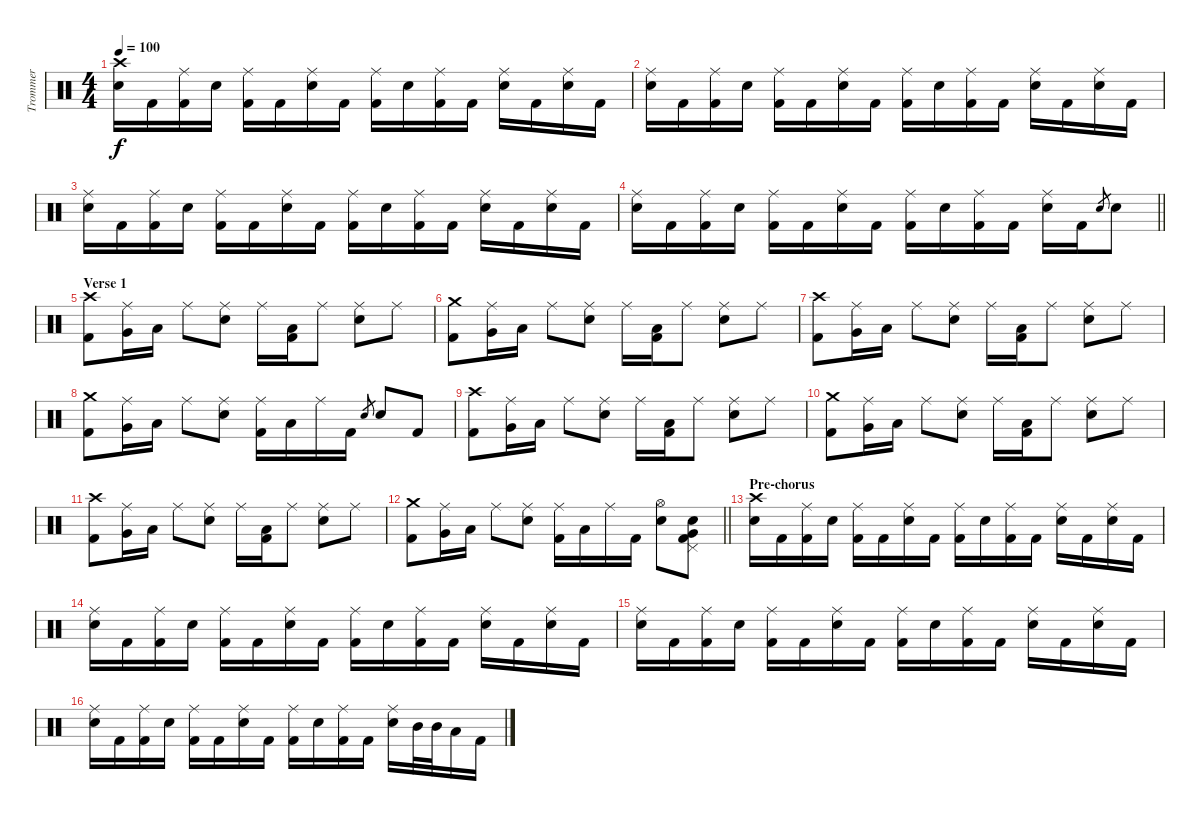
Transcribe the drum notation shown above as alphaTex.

\track ("Trommer" "Trommer") {instrument percussion}
\staff {score}
\articulation defaults
\ts (4 4)
\tempo 100
\clef neutral
\ks c
("Crash high (hit)" "Snare (hit) 2").16{dy f} "Kick (hit) 2".16 ("Ride (middle)" "Kick (hit) 2").16 "Snare (hit) 2".16 ("Ride (middle)" "Kick (hit) 2").16 "Kick (hit) 2".16 ("Ride (middle)" "Snare (hit) 2").16 "Kick (hit) 2".16 ("Ride (middle)" "Kick (hit) 2").16 "Snare (hit) 2".16 ("Ride (middle)" "Kick (hit) 2").16 "Kick (hit) 2".16 ("Ride (middle)" "Snare (hit) 2").16 "Kick (hit) 2".16 ("Ride (middle)" "Snare (hit) 2").16 "Kick (hit) 2".16 |
("Ride (middle)" "Snare (hit) 2").16 "Kick (hit) 2".16 ("Ride (middle)" "Kick (hit) 2").16 "Snare (hit) 2".16 ("Ride (middle)" "Kick (hit) 2").16 "Kick (hit) 2".16 ("Ride (middle)" "Snare (hit) 2").16 "Kick (hit) 2".16 ("Ride (middle)" "Kick (hit) 2").16 "Snare (hit) 2".16 ("Ride (middle)" "Kick (hit) 2").16 "Kick (hit) 2".16 ("Ride (middle)" "Snare (hit) 2").16 "Kick (hit) 2".16 ("Ride (middle)" "Snare (hit) 2").16 "Kick (hit) 2".16 |
("Ride (middle)" "Snare (hit) 2").16 "Kick (hit) 2".16 ("Ride (middle)" "Kick (hit) 2").16 "Snare (hit) 2".16 ("Ride (middle)" "Kick (hit) 2").16 "Kick (hit) 2".16 ("Ride (middle)" "Snare (hit) 2").16 "Kick (hit) 2".16 ("Ride (middle)" "Kick (hit) 2").16 "Snare (hit) 2".16 ("Ride (middle)" "Kick (hit) 2").16 "Kick (hit) 2".16 ("Ride (middle)" "Snare (hit) 2").16 "Kick (hit) 2".16 ("Ride (middle)" "Snare (hit) 2").16 "Kick (hit) 2".16 |
\barLineRight lightlight
("Ride (middle)" "Snare (hit) 2").16 "Kick (hit) 2".16 ("Ride (middle)" "Kick (hit) 2").16 "Snare (hit) 2".16 ("Ride (middle)" "Kick (hit) 2").16 "Kick (hit) 2".16 ("Ride (middle)" "Snare (hit) 2").16 "Kick (hit) 2".16 ("Ride (middle)" "Kick (hit) 2").16 "Snare (hit) 2".16 ("Ride (middle)" "Kick (hit) 2").16 "Kick (hit) 2".16 ("Ride (middle)" "Snare (hit) 2").16 "Kick (hit) 2".16 "Snare (hit) 2".8{gr} "Snare (hit) 2".8 |
\section ("" "Verse 1")
("Crash high (hit)" "Kick (hit) 2").8 ("Ride (middle)" "Very Low Tom (hit)").16 "Low Floor Tom (hit)".16 "Ride (middle)".8 ("Ride (middle)" "Snare (hit) 2").8 "Ride (middle)".16 ("Low Floor Tom (hit)" "Kick (hit) 2").16 "Ride (middle)".8 ("Ride (middle)" "Snare (hit) 2").8 "Ride (middle)".8 |
("Crash medium (hit)" "Kick (hit) 2").8 ("Ride (middle)" "Very Low Tom (hit)").16 "Low Floor Tom (hit)".16 "Ride (middle)".8 ("Ride (middle)" "Snare (hit) 2").8 "Ride (middle)".16 ("Low Floor Tom (hit)" "Kick (hit) 2").16 "Ride (middle)".8 ("Ride (middle)" "Snare (hit) 2").8 "Ride (middle)".8 |
("Crash high (hit)" "Kick (hit) 2").8 ("Ride (middle)" "Very Low Tom (hit)").16 "Low Floor Tom (hit)".16 "Ride (middle)".8 ("Ride (middle)" "Snare (hit) 2").8 "Ride (middle)".16 ("Low Floor Tom (hit)" "Kick (hit) 2").16 "Ride (middle)".8 ("Ride (middle)" "Snare (hit) 2").8 "Ride (middle)".8 |
("Crash medium (hit)" "Kick (hit) 2").8 ("Ride (middle)" "Very Low Tom (hit)").16 "Low Floor Tom (hit)".16 "Ride (middle)".8 ("Ride (middle)" "Snare (hit) 2").8 ("Ride (middle)" "Kick (hit) 2").16 "Low Floor Tom (hit)".16 "Ride (middle)".16 "Kick (hit) 2".16 "Snare (hit) 2".8{gr} "Snare (hit) 2".8 "Kick (hit) 2".8 |
("Crash high (hit)" "Kick (hit) 2").8 ("Ride (middle)" "Very Low Tom (hit)").16 "Low Floor Tom (hit)".16 "Ride (middle)".8 ("Ride (middle)" "Snare (hit) 2").8 "Ride (middle)".16 ("Low Floor Tom (hit)" "Kick (hit) 2").16 "Ride (middle)".8 ("Ride (middle)" "Snare (hit) 2").8 "Ride (middle)".8 |
("Crash medium (hit)" "Kick (hit) 2").8 ("Ride (middle)" "Very Low Tom (hit)").16 "Low Floor Tom (hit)".16 "Ride (middle)".8 ("Ride (middle)" "Snare (hit) 2").8 "Ride (middle)".16 ("Low Floor Tom (hit)" "Kick (hit) 2").16 "Ride (middle)".8 ("Ride (middle)" "Snare (hit) 2").8 "Ride (middle)".8 |
("Crash high (hit)" "Kick (hit) 2").8 ("Ride (middle)" "Very Low Tom (hit)").16 "Low Floor Tom (hit)".16 "Ride (middle)".8 ("Ride (middle)" "Snare (hit) 2").8 "Ride (middle)".16 ("Low Floor Tom (hit)" "Kick (hit) 2").16 "Ride (middle)".8 ("Ride (middle)" "Snare (hit) 2").8 "Ride (middle)".8 |
\barLineRight lightlight
("Crash medium (hit)" "Kick (hit) 2").8 ("Ride (middle)" "Very Low Tom (hit)").16 "Low Floor Tom (hit)".16 "Ride (middle)".8 ("Ride (middle)" "Snare (hit) 2").8 ("Ride (middle)" "Kick (hit) 2").16 "Low Floor Tom (hit)".16 "Ride (middle)".16 "Kick (hit) 2".16 ("Hi-Hat (open)" "Snare (hit) 2").8 ("Pedal Hi-Hat (hit)" "Very Low Tom (hit)" "Snare (hit) 2" "Kick (hit) 2").8 |
\section ("" "Pre-chorus")
("Crash high (hit)" "Snare (hit) 2").16 "Kick (hit) 2".16 ("Ride (middle)" "Kick (hit) 2").16 "Snare (hit) 2".16 ("Ride (middle)" "Kick (hit) 2").16 "Kick (hit) 2".16 ("Ride (middle)" "Snare (hit) 2").16 "Kick (hit) 2".16 ("Ride (middle)" "Kick (hit) 2").16 "Snare (hit) 2".16 ("Ride (middle)" "Kick (hit) 2").16 "Kick (hit) 2".16 ("Ride (middle)" "Snare (hit) 2").16 "Kick (hit) 2".16 ("Ride (middle)" "Snare (hit) 2").16 "Kick (hit) 2".16 |
("Ride (middle)" "Snare (hit) 2").16 "Kick (hit) 2".16 ("Ride (middle)" "Kick (hit) 2").16 "Snare (hit) 2".16 ("Ride (middle)" "Kick (hit) 2").16 "Kick (hit) 2".16 ("Ride (middle)" "Snare (hit) 2").16 "Kick (hit) 2".16 ("Ride (middle)" "Kick (hit) 2").16 "Snare (hit) 2".16 ("Ride (middle)" "Kick (hit) 2").16 "Kick (hit) 2".16 ("Ride (middle)" "Snare (hit) 2").16 "Kick (hit) 2".16 ("Ride (middle)" "Snare (hit) 2").16 "Kick (hit) 2".16 |
("Ride (middle)" "Snare (hit) 2").16 "Kick (hit) 2".16 ("Ride (middle)" "Kick (hit) 2").16 "Snare (hit) 2".16 ("Ride (middle)" "Kick (hit) 2").16 "Kick (hit) 2".16 ("Ride (middle)" "Snare (hit) 2").16 "Kick (hit) 2".16 ("Ride (middle)" "Kick (hit) 2").16 "Snare (hit) 2".16 ("Ride (middle)" "Kick (hit) 2").16 "Kick (hit) 2".16 ("Ride (middle)" "Snare (hit) 2").16 "Kick (hit) 2".16 ("Ride (middle)" "Snare (hit) 2").16 "Kick (hit) 2".16 |
("Ride (middle)" "Snare (hit) 2").16 "Kick (hit) 2".16 ("Ride (middle)" "Kick (hit) 2").16 "Snare (hit) 2".16 ("Ride (middle)" "Kick (hit) 2").16 "Kick (hit) 2".16 ("Ride (middle)" "Snare (hit) 2").16 "Kick (hit) 2".16 ("Ride (middle)" "Kick (hit) 2").16 "Snare (hit) 2".16 ("Ride (middle)" "Kick (hit) 2").16 "Kick (hit) 2".16 ("Ride (middle)" "Snare (hit) 2").16 "Mid Tom (hit)".32 "Mid Tom (hit)".32 "Low Tom (hit)".16 "Kick (hit) 2".16
